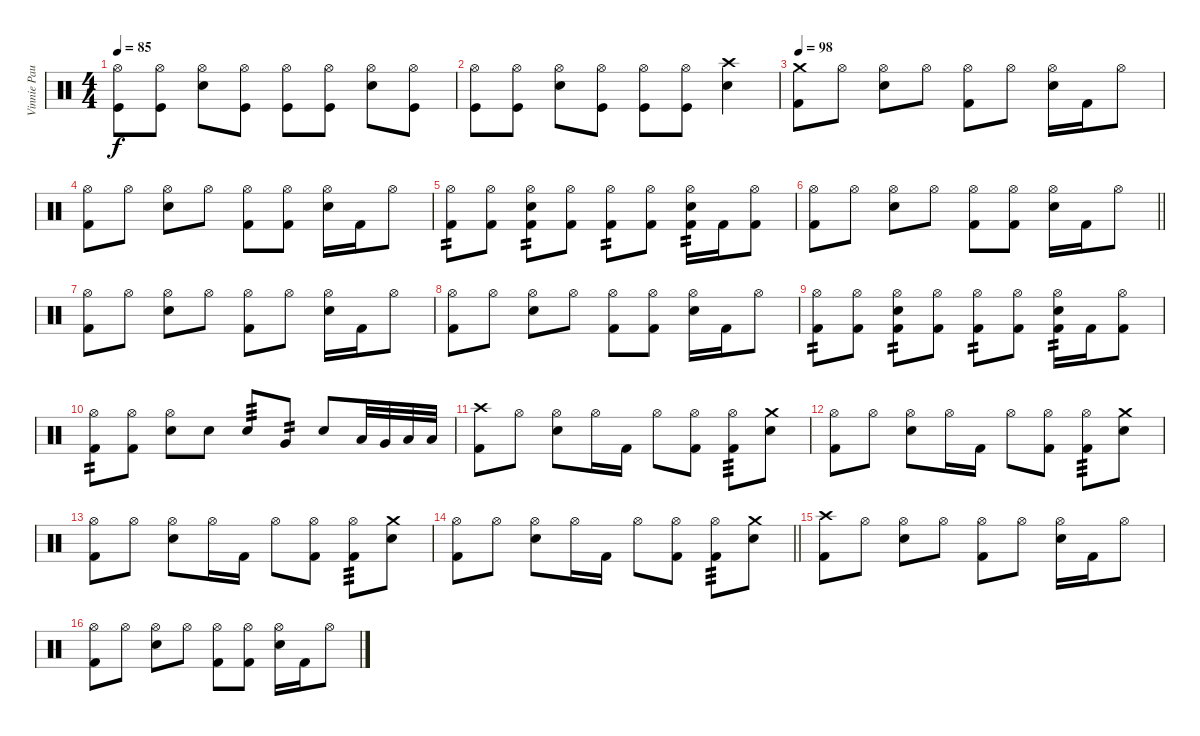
\track ("Vinnie Paul" "Vinnie Pau") {instrument percussion}
\staff {score}
\articulation defaults
\ts (4 4)
\tempo 85
\clef neutral
\ks c
("Hi-Hat (open)" "Kick (hit)").8{dy f} ("Hi-Hat (open)" "Kick (hit)").8 ("Hi-Hat (open)" "Electric Snare (hit)").8 ("Hi-Hat (open)" "Kick (hit)").8 ("Hi-Hat (open)" "Kick (hit)").8 ("Hi-Hat (open)" "Kick (hit)").8 ("Hi-Hat (open)" "Electric Snare (hit)").8 ("Hi-Hat (open)" "Kick (hit)").8 |
("Hi-Hat (open)" "Kick (hit)").8 ("Hi-Hat (open)" "Kick (hit)").8 ("Hi-Hat (open)" "Electric Snare (hit)").8 ("Hi-Hat (open)" "Kick (hit)").8 ("Hi-Hat (open)" "Kick (hit)").8 ("Hi-Hat (open)" "Kick (hit)").8 ("Crash high (hit)" "Electric Snare (hit)").4 |
\tempo 98
("Crash medium (hit)" "Kick (hit) 2").8 "Hi-Hat (open)".8 ("Hi-Hat (open)" "Snare (hit) 2").8 "Hi-Hat (open)".8 ("Hi-Hat (open)" "Kick (hit) 2").8 "Hi-Hat (open)".8 ("Hi-Hat (open)" "Snare (hit) 2").16 "Kick (hit) 2".16 "Hi-Hat (open)".8 |
("Hi-Hat (open)" "Kick (hit) 2").8 "Hi-Hat (open)".8 ("Hi-Hat (open)" "Snare (hit) 2").8 "Hi-Hat (open)".8 ("Hi-Hat (open)" "Kick (hit) 2").8 ("Hi-Hat (open)" "Kick (hit) 2").8 ("Hi-Hat (open)" "Snare (hit) 2").16 "Kick (hit) 2".16 "Hi-Hat (open)".8 |
("Hi-Hat (open)" "Kick (hit) 2").8{tp 2} ("Hi-Hat (open)" "Kick (hit) 2").8 ("Hi-Hat (open)" "Snare (hit) 2" "Kick (hit) 2").8{tp 2} ("Hi-Hat (open)" "Kick (hit) 2").8 ("Hi-Hat (open)" "Kick (hit) 2").8{tp 2} ("Hi-Hat (open)" "Kick (hit) 2").8 ("Hi-Hat (open)" "Snare (hit) 2" "Kick (hit) 2").16{tp 2} "Kick (hit) 2".16 ("Hi-Hat (open)" "Kick (hit) 2").8 |
\barLineRight lightlight
("Hi-Hat (open)" "Kick (hit) 2").8 "Hi-Hat (open)".8 ("Hi-Hat (open)" "Snare (hit) 2").8 "Hi-Hat (open)".8 ("Hi-Hat (open)" "Kick (hit) 2").8 ("Hi-Hat (open)" "Kick (hit) 2").8 ("Hi-Hat (open)" "Snare (hit) 2").16 "Kick (hit) 2".16 "Hi-Hat (open)".8 |
("Hi-Hat (open)" "Kick (hit) 2").8 "Hi-Hat (open)".8 ("Hi-Hat (open)" "Snare (hit) 2").8 "Hi-Hat (open)".8 ("Hi-Hat (open)" "Kick (hit) 2").8 "Hi-Hat (open)".8 ("Hi-Hat (open)" "Snare (hit) 2").16 "Kick (hit) 2".16 "Hi-Hat (open)".8 |
("Hi-Hat (open)" "Kick (hit) 2").8 "Hi-Hat (open)".8 ("Hi-Hat (open)" "Snare (hit) 2").8 "Hi-Hat (open)".8 ("Hi-Hat (open)" "Kick (hit) 2").8 ("Hi-Hat (open)" "Kick (hit) 2").8 ("Hi-Hat (open)" "Snare (hit) 2").16 "Kick (hit) 2".16 "Hi-Hat (open)".8 |
("Hi-Hat (open)" "Kick (hit) 2").8{tp 2} ("Hi-Hat (open)" "Kick (hit) 2").8 ("Hi-Hat (open)" "Snare (hit) 2" "Kick (hit) 2").8{tp 2} ("Hi-Hat (open)" "Kick (hit) 2").8 ("Hi-Hat (open)" "Kick (hit) 2").8{tp 2} ("Hi-Hat (open)" "Kick (hit) 2").8 ("Hi-Hat (open)" "Snare (hit) 2" "Kick (hit) 2").16{tp 2} "Kick (hit) 2".16 ("Hi-Hat (open)" "Kick (hit) 2").8 |
("Hi-Hat (open)" "Kick (hit) 2").8{tp 2} ("Hi-Hat (open)" "Kick (hit) 2").8 ("Hi-Hat (open)" "Snare (hit) 2").8 "Snare (hit) 2".8 "Snare (hit) 2".8{tp 3} "Very Low Tom (hit)".8{tp 2} "Snare (hit) 2".8 "Low Tom (hit)".32 "Very Low Tom (hit)".32 "Low Floor Tom (hit)".32 "Low Floor Tom (hit)".32 |
("Crash high (hit)" "Kick (hit) 2").8 "Hi-Hat (open)".8 ("Hi-Hat (open)" "Snare (hit) 2").8 "Hi-Hat (open)".16 "Kick (hit) 2".16 "Hi-Hat (open)".8 ("Hi-Hat (open)" "Kick (hit) 2").8 ("Hi-Hat (open)" "Kick (hit) 2").8{tp 3} ("Crash medium (hit)" "Snare (hit) 2").8 |
("Hi-Hat (open)" "Kick (hit) 2").8 "Hi-Hat (open)".8 ("Hi-Hat (open)" "Snare (hit) 2").8 "Hi-Hat (open)".16 "Kick (hit) 2".16 "Hi-Hat (open)".8 ("Hi-Hat (open)" "Kick (hit) 2").8 ("Hi-Hat (open)" "Kick (hit) 2").8{tp 3} ("Crash medium (hit)" "Snare (hit) 2").8 |
("Hi-Hat (open)" "Kick (hit) 2").8 "Hi-Hat (open)".8 ("Hi-Hat (open)" "Snare (hit) 2").8 "Hi-Hat (open)".16 "Kick (hit) 2".16 "Hi-Hat (open)".8 ("Hi-Hat (open)" "Kick (hit) 2").8 ("Hi-Hat (open)" "Kick (hit) 2").8{tp 3} ("Crash medium (hit)" "Snare (hit) 2").8 |
\barLineRight lightlight
("Hi-Hat (open)" "Kick (hit) 2").8 "Hi-Hat (open)".8 ("Hi-Hat (open)" "Snare (hit) 2").8 "Hi-Hat (open)".16 "Kick (hit) 2".16 "Hi-Hat (open)".8 ("Hi-Hat (open)" "Kick (hit) 2").8 ("Hi-Hat (open)" "Kick (hit) 2").8{tp 3} ("Crash medium (hit)" "Snare (hit) 2").8 |
("Crash high (hit)" "Kick (hit) 2").8 "Hi-Hat (open)".8 ("Hi-Hat (open)" "Snare (hit) 2").8 "Hi-Hat (open)".8 ("Hi-Hat (open)" "Kick (hit) 2").8 "Hi-Hat (open)".8 ("Hi-Hat (open)" "Snare (hit) 2").16 "Kick (hit) 2".16 "Hi-Hat (open)".8 |
("Hi-Hat (open)" "Kick (hit) 2").8 "Hi-Hat (open)".8 ("Hi-Hat (open)" "Snare (hit) 2").8 "Hi-Hat (open)".8 ("Hi-Hat (open)" "Kick (hit) 2").8 ("Hi-Hat (open)" "Kick (hit) 2").8 ("Hi-Hat (open)" "Snare (hit) 2").16 "Kick (hit) 2".16 "Hi-Hat (open)".8
